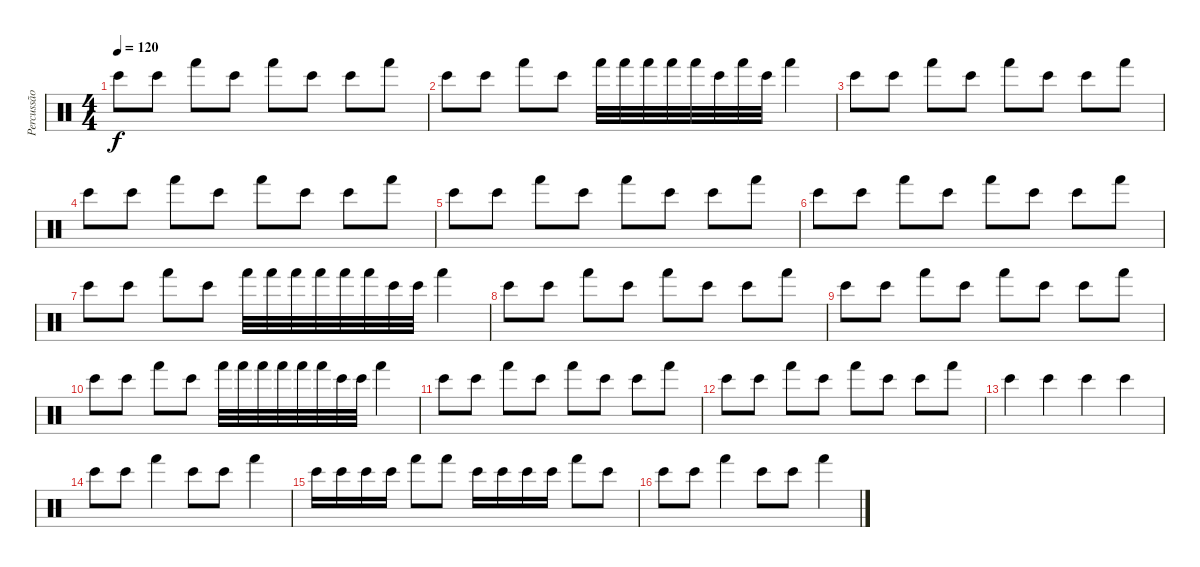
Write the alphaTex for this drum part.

\track ("Percussão" "Percussão") {instrument percussion}
\staff {score}
\articulation defaults
\ts (4 4)
\tempo 120
\clef neutral
\ks c "Bongo High (hit)".8{dy f} "Bongo High (hit)".8 "Hand (hit)".8 "Bongo High (hit)".8 "Hand (hit)".8 "Bongo High (hit)".8 "Bongo High (hit)".8 "Hand (hit)".8
|
"Bongo High (hit)".8 "Bongo High (hit)".8 "Hand (hit)".8 "Bongo High (hit)".8 "Hand (hit)".32 "Hand (hit)".32 "Hand (hit)".32 "Hand (hit)".32 "Hand (hit)".32 "Bongo High (hit)".32 "Hand (hit)".32 "Bongo High (hit)".32 "Hand (hit)".4 |
"Bongo High (hit)".8 "Bongo High (hit)".8 "Hand (hit)".8 "Bongo High (hit)".8 "Hand (hit)".8 "Bongo High (hit)".8 "Bongo High (hit)".8 "Hand (hit)".8 |
"Bongo High (hit)".8 "Bongo High (hit)".8 "Hand (hit)".8 "Bongo High (hit)".8 "Hand (hit)".8 "Bongo High (hit)".8 "Bongo High (hit)".8 "Hand (hit)".8 |
"Bongo High (hit)".8 "Bongo High (hit)".8 "Hand (hit)".8 "Bongo High (hit)".8 "Hand (hit)".8 "Bongo High (hit)".8 "Bongo High (hit)".8 "Hand (hit)".8 |
"Bongo High (hit)".8 "Bongo High (hit)".8 "Hand (hit)".8 "Bongo High (hit)".8 "Hand (hit)".8 "Bongo High (hit)".8 "Bongo High (hit)".8 "Hand (hit)".8 |
"Bongo High (hit)".8 "Bongo High (hit)".8 "Hand (hit)".8 "Bongo High (hit)".8 "Hand (hit)".32 "Hand (hit)".32 "Hand (hit)".32 "Hand (hit)".32 "Hand (hit)".32 "Hand (hit)".32 "Bongo High (hit)".32 "Bongo High (hit)".32 "Hand (hit)".4 |
"Bongo High (hit)".8 "Bongo High (hit)".8 "Hand (hit)".8 "Bongo High (hit)".8 "Hand (hit)".8 "Bongo High (hit)".8 "Bongo High (hit)".8 "Hand (hit)".8 |
"Bongo High (hit)".8 "Bongo High (hit)".8 "Hand (hit)".8 "Bongo High (hit)".8 "Hand (hit)".8 "Bongo High (hit)".8 "Bongo High (hit)".8 "Hand (hit)".8 |
"Bongo High (hit)".8 "Bongo High (hit)".8 "Hand (hit)".8 "Bongo High (hit)".8 "Hand (hit)".32 "Hand (hit)".32 "Hand (hit)".32 "Hand (hit)".32 "Hand (hit)".32 "Hand (hit)".32 "Bongo High (hit)".32 "Bongo High (hit)".32 "Hand (hit)".4 |
"Bongo High (hit)".8 "Bongo High (hit)".8 "Hand (hit)".8 "Bongo High (hit)".8 "Hand (hit)".8 "Bongo High (hit)".8 "Bongo High (hit)".8 "Hand (hit)".8 |
"Bongo High (hit)".8 "Bongo High (hit)".8 "Hand (hit)".8 "Bongo High (hit)".8 "Hand (hit)".8 "Bongo High (hit)".8 "Bongo High (hit)".8 "Hand (hit)".8 |
"Bongo High (hit)".4 "Bongo High (hit)".4 "Bongo High (hit)".4 "Bongo High (hit)".4 |
"Bongo High (hit)".8 "Bongo High (hit)".8 "Hand (hit)".4 "Bongo High (hit)".8 "Bongo High (hit)".8 "Hand (hit)".4 |
"Bongo High (hit)".16 "Bongo High (hit)".16 "Bongo High (hit)".16 "Bongo High (hit)".16 "Hand (hit)".8 "Hand (hit)".8 "Bongo High (hit)".16 "Bongo High (hit)".16 "Bongo High (hit)".16 "Bongo High (hit)".16 "Hand (hit)".8 "Bongo High (hit)".8 |
"Bongo High (hit)".8 "Bongo High (hit)".8 "Hand (hit)".4 "Bongo High (hit)".8 "Bongo High (hit)".8 "Hand (hit)".4
